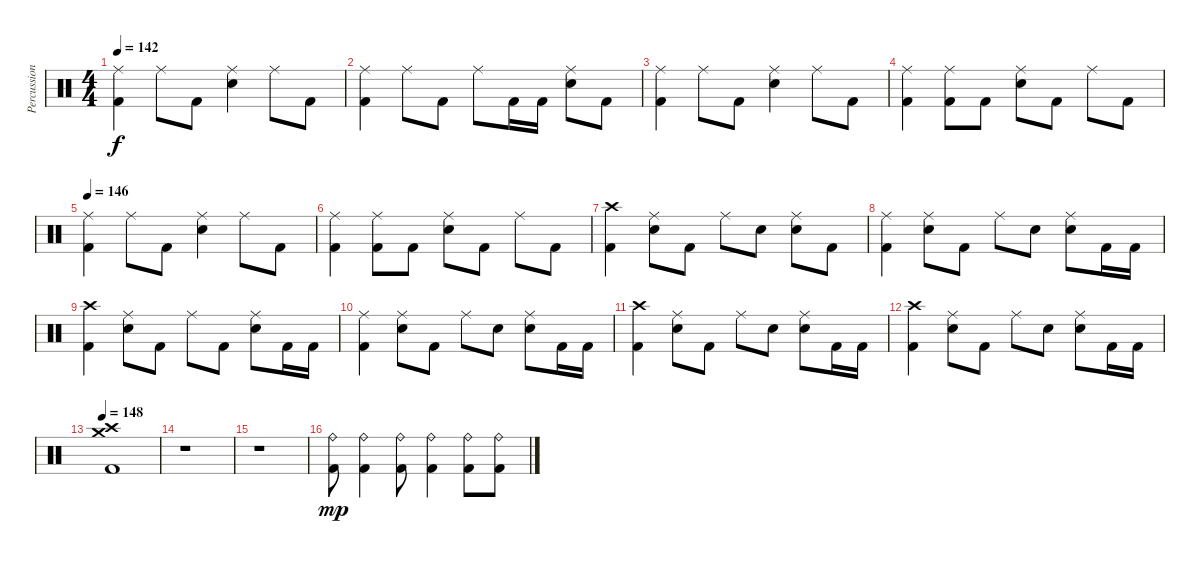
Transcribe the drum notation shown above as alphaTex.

\track ("Percussion" "Percussion") {solo instrument percussion}
\staff {score}
\articulation defaults
\ts (4 4)
\tempo 142
\clef neutral
\ks c
("Ride (middle)" "Kick (hit) 2").4{dy f} "Ride (middle)".8 "Kick (hit) 2".8 ("Ride (middle)" "Snare (hit) 2").4 "Ride (middle)".8 "Kick (hit) 2".8 |
("Ride (middle)" "Kick (hit) 2").4 "Ride (middle)".8 "Kick (hit) 2".8 "Ride (middle)".8 "Kick (hit) 2".16 "Kick (hit) 2".16 ("Ride (middle)" "Snare (hit) 2").8 "Kick (hit) 2".8 |
("Ride (middle)" "Kick (hit) 2").4 "Ride (middle)".8 "Kick (hit) 2".8 ("Ride (middle)" "Snare (hit) 2").4 "Ride (middle)".8 "Kick (hit) 2".8 |
("Ride (middle)" "Kick (hit) 2").4 ("Ride (middle)" "Kick (hit) 2").8 "Kick (hit) 2".8 ("Ride (middle)" "Snare (hit) 2").8 "Kick (hit) 2".8 "Ride (middle)".8 "Kick (hit) 2".8 |
\tempo 146
("Ride (middle)" "Kick (hit) 2").4 "Ride (middle)".8 "Kick (hit) 2".8 ("Ride (middle)" "Snare (hit) 2").4 "Ride (middle)".8 "Kick (hit) 2".8 |
("Ride (middle)" "Kick (hit) 2").4 ("Ride (middle)" "Kick (hit) 2").8 "Kick (hit) 2".8 ("Ride (middle)" "Snare (hit) 2").8 "Kick (hit) 2".8 "Ride (middle)".8 "Kick (hit) 2".8 |
("Crash high (hit)" "Kick (hit) 2").4 ("Ride (middle)" "Snare (hit) 2").8 "Kick (hit) 2".8 "Ride (middle)".8 "Snare (hit) 2".8 ("Ride (middle)" "Snare (hit) 2").8 "Kick (hit) 2".8 |
("Ride (middle)" "Kick (hit) 2").4 ("Ride (middle)" "Snare (hit) 2").8 "Kick (hit) 2".8 "Ride (middle)".8 "Snare (hit) 2".8 ("Ride (middle)" "Snare (hit) 2").8 "Kick (hit) 2".16 "Kick (hit) 2".16 |
("Crash high (hit)" "Kick (hit) 2").4 ("Ride (middle)" "Snare (hit) 2").8 "Kick (hit) 2".8 "Ride (middle)".8 "Kick (hit) 2".8 ("Ride (middle)" "Snare (hit) 2").8 "Kick (hit) 2".16 "Kick (hit) 2".16 |
("Ride (middle)" "Kick (hit) 2").4 ("Ride (middle)" "Snare (hit) 2").8 "Kick (hit) 2".8 "Ride (middle)".8 "Snare (hit) 2".8 ("Ride (middle)" "Snare (hit) 2").8 "Kick (hit) 2".16 "Kick (hit) 2".16 |
("Crash high (hit)" "Kick (hit) 2").4 ("Ride (middle)" "Snare (hit) 2").8 "Kick (hit) 2".8 "Ride (middle)".8 "Snare (hit) 2".8 ("Ride (middle)" "Snare (hit) 2").8 "Kick (hit) 2".16 "Kick (hit) 2".16 |
("Crash high (hit)" "Kick (hit) 2").4 ("Ride (middle)" "Snare (hit) 2").8 "Kick (hit) 2".8 "Ride (middle)".8 "Snare (hit) 2".8 ("Ride (middle)" "Snare (hit) 2").8 "Kick (hit) 2".16 "Kick (hit) 2".16 |
\tempo 148
("Crash high (hit)" "Crash medium (hit)" "Kick (hit) 2").1 |
r.1 |
r.1 |
("Ride (bell)" "Kick (hit) 2").8{dy mp} ("Ride (bell)" "Kick (hit) 2").4 ("Ride (bell)" "Kick (hit) 2").8 ("Ride (bell)" "Kick (hit) 2").4 ("Ride (bell)" "Kick (hit) 2").8 ("Ride (bell)" "Kick (hit) 2").8
